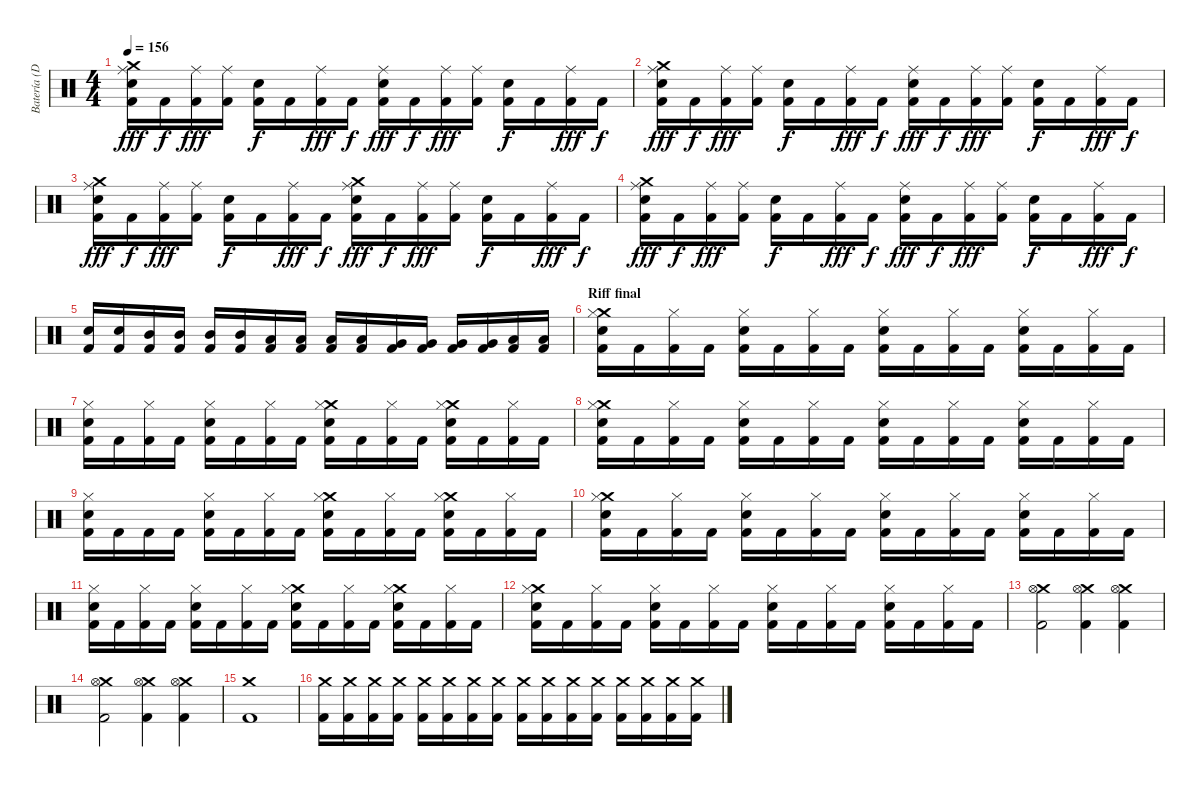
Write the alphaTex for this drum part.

\track ("Batería (Dani)" "Batería (D") {instrument percussion}
\staff {score}
\articulation defaults
\ts (4 4)
\tempo 156
\clef neutral
\ks c
("Crash medium (hit)" "Ride (middle)" "Snare (hit) 2" "Kick (hit) 2").16{dy fff} "Kick (hit) 2".16{dy f} ("Ride (middle)" "Kick (hit) 2").16{dy fff} ("Ride (middle)" "Kick (hit) 2").16 ("Snare (hit) 2" "Kick (hit) 2").16{dy f} "Kick (hit) 2".16 ("Ride (middle)" "Kick (hit) 2").16{dy fff} "Kick (hit) 2".16{dy f} ("Ride (middle)" "Snare (hit) 2" "Kick (hit) 2").16{dy fff} "Kick (hit) 2".16{dy f} ("Ride (middle)" "Kick (hit) 2").16{dy fff} ("Ride (middle)" "Kick (hit) 2").16 ("Snare (hit) 2" "Kick (hit) 2").16{dy f} "Kick (hit) 2".16 ("Ride (middle)" "Kick (hit) 2").16{dy fff} "Kick (hit) 2".16{dy f} |
("Crash medium (hit)" "Ride (middle)" "Snare (hit) 2" "Kick (hit) 2").16{dy fff} "Kick (hit) 2".16{dy f} ("Ride (middle)" "Kick (hit) 2").16{dy fff} ("Ride (middle)" "Kick (hit) 2").16 ("Snare (hit) 2" "Kick (hit) 2").16{dy f} "Kick (hit) 2".16 ("Ride (middle)" "Kick (hit) 2").16{dy fff} "Kick (hit) 2".16{dy f} ("Ride (middle)" "Snare (hit) 2" "Kick (hit) 2").16{dy fff} "Kick (hit) 2".16{dy f} ("Ride (middle)" "Kick (hit) 2").16{dy fff} ("Ride (middle)" "Kick (hit) 2").16 ("Snare (hit) 2" "Kick (hit) 2").16{dy f} "Kick (hit) 2".16 ("Ride (middle)" "Kick (hit) 2").16{dy fff} "Kick (hit) 2".16{dy f} |
("Crash medium (hit)" "Ride (middle)" "Snare (hit) 2" "Kick (hit) 2").16{dy fff} "Kick (hit) 2".16{dy f} ("Ride (middle)" "Kick (hit) 2").16{dy fff} ("Ride (middle)" "Kick (hit) 2").16 ("Snare (hit) 2" "Kick (hit) 2").16{dy f} "Kick (hit) 2".16 ("Ride (middle)" "Kick (hit) 2").16{dy fff} "Kick (hit) 2".16{dy f} ("Crash medium (hit)" "Ride (middle)" "Snare (hit) 2" "Kick (hit) 2").16{dy fff} "Kick (hit) 2".16{dy f} ("Ride (middle)" "Kick (hit) 2").16{dy fff} ("Ride (middle)" "Kick (hit) 2").16 ("Snare (hit) 2" "Kick (hit) 2").16{dy f} "Kick (hit) 2".16 ("Ride (middle)" "Kick (hit) 2").16{dy fff} "Kick (hit) 2".16{dy f} |
("Crash medium (hit)" "Ride (middle)" "Snare (hit) 2" "Kick (hit) 2").16{dy fff} "Kick (hit) 2".16{dy f} ("Ride (middle)" "Kick (hit) 2").16{dy fff} ("Ride (middle)" "Kick (hit) 2").16 ("Snare (hit) 2" "Kick (hit) 2").16{dy f} "Kick (hit) 2".16 ("Ride (middle)" "Kick (hit) 2").16{dy fff} "Kick (hit) 2".16{dy f} ("Ride (middle)" "Snare (hit) 2" "Kick (hit) 2").16{dy fff} "Kick (hit) 2".16{dy f} ("Ride (middle)" "Kick (hit) 2").16{dy fff} ("Ride (middle)" "Kick (hit) 2").16 ("Snare (hit) 2" "Kick (hit) 2").16{dy f} "Kick (hit) 2".16 ("Ride (middle)" "Kick (hit) 2").16{dy fff} "Kick (hit) 2".16{dy f} |
("Snare (hit) 2" "Kick (hit) 2").16 ("Snare (hit) 2" "Kick (hit) 2").16 ("Mid Tom (hit)" "Kick (hit) 2").16 ("Mid Tom (hit)" "Kick (hit) 2").16 ("Mid Tom (hit)" "Kick (hit) 2").16 ("Mid Tom (hit)" "Kick (hit) 2").16 ("Low Tom (hit)" "Kick (hit) 2").16 ("Low Tom (hit)" "Kick (hit) 2").16 ("Low Tom (hit)" "Kick (hit) 2").16 ("Low Tom (hit)" "Kick (hit) 2").16 ("Very Low Tom (hit)" "Kick (hit) 2").16 ("Very Low Tom (hit)" "Kick (hit) 2").16 ("Very Low Tom (hit)" "Kick (hit) 2").16 ("Very Low Tom (hit)" "Kick (hit) 2").16 ("Low Floor Tom (hit)" "Kick (hit) 2").16 ("Low Floor Tom (hit)" "Kick (hit) 2").16 |
\section ("" "Riff final")
("Crash medium (hit)" "Hi-Hat (closed)" "Snare (hit) 2" "Kick (hit) 2").16 "Kick (hit) 2".16 ("Hi-Hat (closed)" "Kick (hit) 2").16 "Kick (hit) 2".16 ("Hi-Hat (closed)" "Snare (hit) 2" "Kick (hit) 2").16 "Kick (hit) 2".16 ("Hi-Hat (closed)" "Kick (hit) 2").16 "Kick (hit) 2".16 ("Hi-Hat (closed)" "Snare (hit) 2" "Kick (hit) 2").16 "Kick (hit) 2".16 ("Hi-Hat (closed)" "Kick (hit) 2").16 "Kick (hit) 2".16 ("Hi-Hat (closed)" "Snare (hit) 2" "Kick (hit) 2").16 "Kick (hit) 2".16 ("Hi-Hat (closed)" "Kick (hit) 2").16 "Kick (hit) 2".16 |
("Hi-Hat (closed)" "Snare (hit) 2" "Kick (hit) 2").16 "Kick (hit) 2".16 ("Hi-Hat (closed)" "Kick (hit) 2").16 "Kick (hit) 2".16 ("Hi-Hat (closed)" "Snare (hit) 2" "Kick (hit) 2").16 "Kick (hit) 2".16 ("Hi-Hat (closed)" "Kick (hit) 2").16 "Kick (hit) 2".16 ("Crash medium (hit)" "Hi-Hat (closed)" "Snare (hit) 2" "Kick (hit) 2").16 "Kick (hit) 2".16 ("Hi-Hat (closed)" "Kick (hit) 2").16 "Kick (hit) 2".16 ("Crash medium (hit)" "Hi-Hat (closed)" "Snare (hit) 2" "Kick (hit) 2").16 "Kick (hit) 2".16 ("Hi-Hat (closed)" "Kick (hit) 2").16 "Kick (hit) 2".16 |
("Crash medium (hit)" "Hi-Hat (closed)" "Snare (hit) 2" "Kick (hit) 2").16 "Kick (hit) 2".16 ("Hi-Hat (closed)" "Kick (hit) 2").16 "Kick (hit) 2".16 ("Hi-Hat (closed)" "Snare (hit) 2" "Kick (hit) 2").16 "Kick (hit) 2".16 ("Hi-Hat (closed)" "Kick (hit) 2").16 "Kick (hit) 2".16 ("Hi-Hat (closed)" "Snare (hit) 2" "Kick (hit) 2").16 "Kick (hit) 2".16 ("Hi-Hat (closed)" "Kick (hit) 2").16 "Kick (hit) 2".16 ("Hi-Hat (closed)" "Snare (hit) 2" "Kick (hit) 2").16 "Kick (hit) 2".16 ("Hi-Hat (closed)" "Kick (hit) 2").16 "Kick (hit) 2".16 |
("Hi-Hat (closed)" "Snare (hit) 2" "Kick (hit) 2").16 "Kick (hit) 2".16 "Kick (hit) 2".16 "Kick (hit) 2".16 ("Hi-Hat (closed)" "Snare (hit) 2" "Kick (hit) 2").16 "Kick (hit) 2".16 ("Hi-Hat (closed)" "Kick (hit) 2").16 "Kick (hit) 2".16 ("Crash medium (hit)" "Hi-Hat (closed)" "Snare (hit) 2" "Kick (hit) 2").16 "Kick (hit) 2".16 ("Hi-Hat (closed)" "Kick (hit) 2").16 "Kick (hit) 2".16 ("Crash medium (hit)" "Hi-Hat (closed)" "Snare (hit) 2" "Kick (hit) 2").16 "Kick (hit) 2".16 ("Hi-Hat (closed)" "Kick (hit) 2").16 "Kick (hit) 2".16 |
("Crash medium (hit)" "Hi-Hat (closed)" "Snare (hit) 2" "Kick (hit) 2").16 "Kick (hit) 2".16 ("Hi-Hat (closed)" "Kick (hit) 2").16 "Kick (hit) 2".16 ("Hi-Hat (closed)" "Snare (hit) 2" "Kick (hit) 2").16 "Kick (hit) 2".16 ("Hi-Hat (closed)" "Kick (hit) 2").16 "Kick (hit) 2".16 ("Hi-Hat (closed)" "Snare (hit) 2" "Kick (hit) 2").16 "Kick (hit) 2".16 ("Hi-Hat (closed)" "Kick (hit) 2").16 "Kick (hit) 2".16 ("Hi-Hat (closed)" "Snare (hit) 2" "Kick (hit) 2").16 "Kick (hit) 2".16 ("Hi-Hat (closed)" "Kick (hit) 2").16 "Kick (hit) 2".16 |
("Hi-Hat (closed)" "Snare (hit) 2" "Kick (hit) 2").16 "Kick (hit) 2".16 ("Hi-Hat (closed)" "Kick (hit) 2").16 "Kick (hit) 2".16 ("Hi-Hat (closed)" "Snare (hit) 2" "Kick (hit) 2").16 "Kick (hit) 2".16 ("Hi-Hat (closed)" "Kick (hit) 2").16 "Kick (hit) 2".16 ("Crash medium (hit)" "Hi-Hat (closed)" "Snare (hit) 2" "Kick (hit) 2").16 "Kick (hit) 2".16 ("Hi-Hat (closed)" "Kick (hit) 2").16 "Kick (hit) 2".16 ("Crash medium (hit)" "Hi-Hat (closed)" "Snare (hit) 2" "Kick (hit) 2").16 "Kick (hit) 2".16 ("Hi-Hat (closed)" "Kick (hit) 2").16 "Kick (hit) 2".16 |
("Crash medium (hit)" "Hi-Hat (closed)" "Snare (hit) 2" "Kick (hit) 2").16 "Kick (hit) 2".16 ("Hi-Hat (closed)" "Kick (hit) 2").16 "Kick (hit) 2".16 ("Hi-Hat (closed)" "Snare (hit) 2" "Kick (hit) 2").16 "Kick (hit) 2".16 ("Hi-Hat (closed)" "Kick (hit) 2").16 "Kick (hit) 2".16 ("Hi-Hat (closed)" "Snare (hit) 2" "Kick (hit) 2").16 "Kick (hit) 2".16 ("Hi-Hat (closed)" "Kick (hit) 2").16 "Kick (hit) 2".16 ("Hi-Hat (closed)" "Snare (hit) 2" "Kick (hit) 2").16 "Kick (hit) 2".16 ("Hi-Hat (closed)" "Kick (hit) 2").16 "Kick (hit) 2".16 |
("Crash medium (hit)" "Hi-Hat (open)" "Kick (hit) 2").2 ("Crash medium (hit)" "Hi-Hat (open)" "Kick (hit) 2").4 ("Crash medium (hit)" "Hi-Hat (open)" "Kick (hit) 2").4 |
("Crash medium (hit)" "Hi-Hat (open)" "Kick (hit) 2").2 ("Crash medium (hit)" "Hi-Hat (open)" "Kick (hit) 2").4 ("Crash medium (hit)" "Hi-Hat (open)" "Kick (hit) 2").4 |
("Crash medium (hit)" "Kick (hit) 2").1 |
("Crash medium (hit)" "Kick (hit) 2").16 ("Crash medium (hit)" "Kick (hit) 2").16 ("Crash medium (hit)" "Kick (hit) 2").16 ("Crash medium (hit)" "Kick (hit) 2").16 ("Crash medium (hit)" "Kick (hit) 2").16 ("Crash medium (hit)" "Kick (hit) 2").16 ("Crash medium (hit)" "Kick (hit) 2").16 ("Crash medium (hit)" "Kick (hit) 2").16 ("Crash medium (hit)" "Kick (hit) 2").16 ("Crash medium (hit)" "Kick (hit) 2").16 ("Crash medium (hit)" "Kick (hit) 2").16 ("Crash medium (hit)" "Kick (hit) 2").16 ("Crash medium (hit)" "Kick (hit) 2").16 ("Crash medium (hit)" "Kick (hit) 2").16 ("Crash medium (hit)" "Kick (hit) 2").16 ("Crash medium (hit)" "Kick (hit) 2").16
